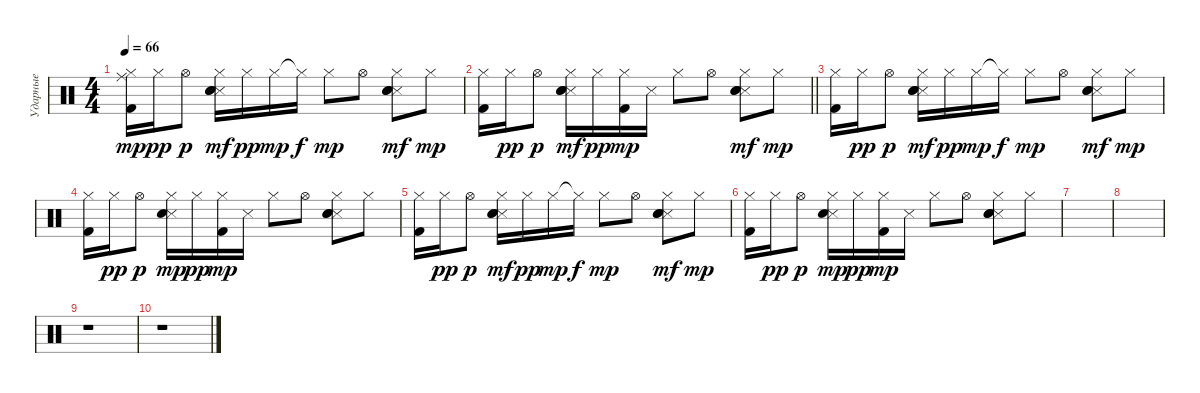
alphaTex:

\track ("Ударные" "Ударные") {instrument percussion}
\staff {score}
\articulation defaults
\ts (4 4)
\tempo 66
\clef neutral
\ks c
("Hi-Hat (closed)" "Ride (middle)" "Kick (hit) 2").16{dy mp} "Hi-Hat (closed)".16{dy pp} "Hi-Hat (open)".8{dy p} ("Hi-Hat (closed)" "Snare (side stick) 3" "Electric Snare (hit)" "Hand Clap (hit)").16{dy mf} "Hi-Hat (closed)".16{dy pp} "Hi-Hat (closed)".16{dy mp} "Hi-Hat (closed)"{t}.16{dy f} "Hi-Hat (closed)".8{dy mp} "Hi-Hat (open)".8{balance 0} ("Hi-Hat (closed)" "Snare (side stick) 3" "Electric Snare (hit)" "Hand Clap (hit)").8{dy mf balance 8} "Hi-Hat (closed)".8{dy mp} |
\barLineRight lightlight
("Hi-Hat (closed)" "Kick (hit) 2").16 "Hi-Hat (closed)".16{dy pp} "Hi-Hat (open)".8{dy p} ("Hi-Hat (closed)" "Snare (side stick) 3" "Electric Snare (hit)" "Hand Clap (hit)").16{dy mf} "Hi-Hat (closed)".16{dy pp} ("Hi-Hat (closed)" "Kick (hit) 2").16{dy mp} "Snare (side stick) 3".16 "Hi-Hat (closed)".8 "Hi-Hat (open)".8{balance 0} ("Hi-Hat (closed)" "Snare (side stick) 3" "Electric Snare (hit)" "Hand Clap (hit)").8{dy mf balance 8} "Hi-Hat (closed)".8{dy mp} |
("Hi-Hat (closed)" "Kick (hit) 2").16 "Hi-Hat (closed)".16{dy pp} "Hi-Hat (open)".8{dy p} ("Hi-Hat (closed)" "Snare (side stick) 3" "Electric Snare (hit)" "Hand Clap (hit)").16{dy mf} "Hi-Hat (closed)".16{dy pp} "Hi-Hat (closed)".16{dy mp} "Hi-Hat (closed)"{t}.16{dy f} "Hi-Hat (closed)".8{dy mp} "Hi-Hat (open)".8{balance 0} ("Hi-Hat (closed)" "Snare (side stick) 3" "Electric Snare (hit)" "Hand Clap (hit)").8{dy mf balance 8} "Hi-Hat (closed)".8{dy mp} |
("Hi-Hat (closed)" "Kick (hit) 2").16 "Hi-Hat (closed)".16{dy pp} "Hi-Hat (open)".8{dy p} ("Hi-Hat (closed)" "Snare (side stick) 3" "Electric Snare (hit)").16{dy mp} "Hi-Hat (closed)".16{dy pp} ("Hi-Hat (closed)" "Kick (hit) 2").16{dy mp} "Snare (side stick) 3".16 "Hi-Hat (closed)".8 "Hi-Hat (open)".8{balance 0} ("Hi-Hat (closed)" "Snare (side stick) 3" "Electric Snare (hit)" "Hand Clap (hit)").8{balance 8} "Hi-Hat (closed)".8 |
("Hi-Hat (closed)" "Kick (hit) 2").16 "Hi-Hat (closed)".16{dy pp} "Hi-Hat (open)".8{dy p} ("Hi-Hat (closed)" "Snare (side stick) 3" "Electric Snare (hit)" "Hand Clap (hit)").16{dy mf} "Hi-Hat (closed)".16{dy pp} "Hi-Hat (closed)".16{dy mp} "Hi-Hat (closed)"{t}.16{dy f} "Hi-Hat (closed)".8{dy mp} "Hi-Hat (open)".8{balance 0} ("Hi-Hat (closed)" "Snare (side stick) 3" "Electric Snare (hit)" "Hand Clap (hit)").8{dy mf balance 8} "Hi-Hat (closed)".8{dy mp} |
("Hi-Hat (closed)" "Kick (hit) 2").16 "Hi-Hat (closed)".16{dy pp} "Hi-Hat (open)".8{dy p} ("Hi-Hat (closed)" "Snare (side stick) 3" "Electric Snare (hit)").16{dy mp} "Hi-Hat (closed)".16{dy pp} ("Hi-Hat (closed)" "Kick (hit) 2").16{dy mp} "Snare (side stick) 3".16 "Hi-Hat (closed)".8 "Hi-Hat (open)".8{balance 0} ("Hi-Hat (closed)" "Snare (side stick) 3" "Electric Snare (hit)" "Hand Clap (hit)").8{balance 8} "Hi-Hat (closed)".8 |
|
|
r.1 |
r.1
